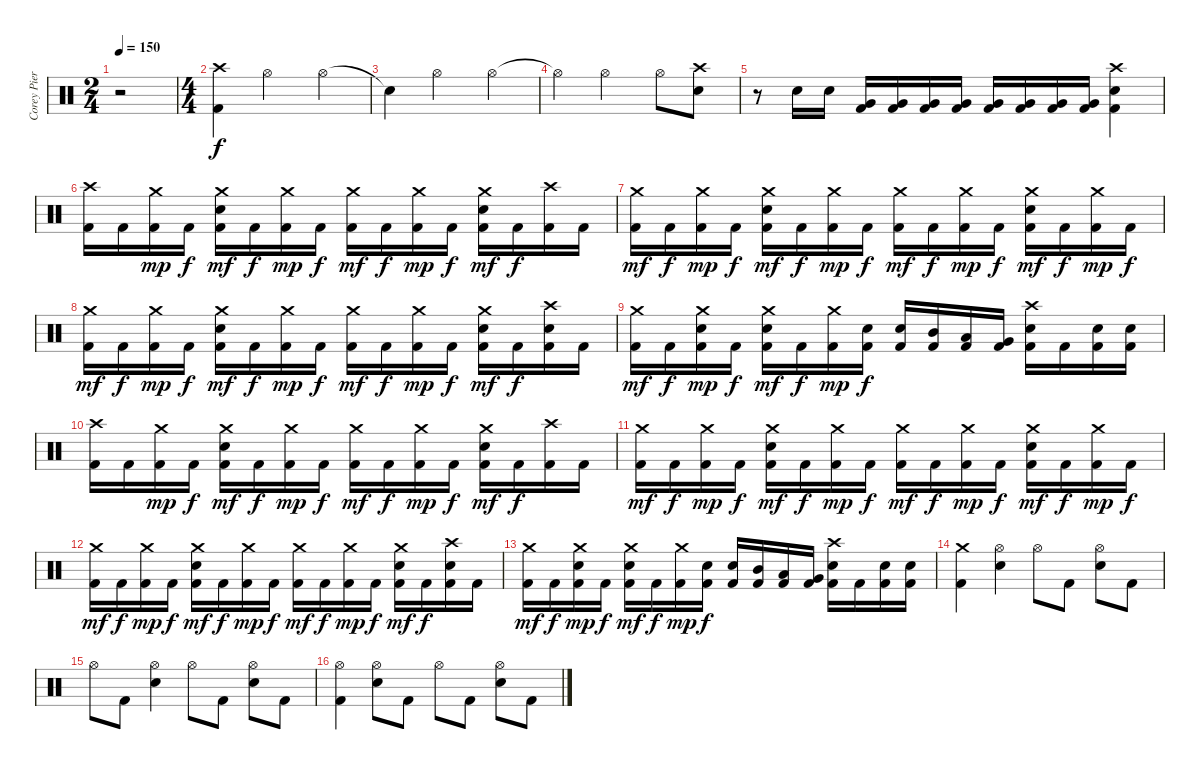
\track ("Corey Pierce" "Corey Pier") {instrument percussion}
\staff {score}
\articulation defaults
\ts (2 4)
\tempo 150
\clef neutral
\ks c
r.2{dy f} |
\ts (4 4)
("Crash high (hit)" "Kick (hit) 2").4 "Hi-Hat (open)".2 "Hi-Hat (open)".4 |
"Snare (hit)"{t}.4 "Hi-Hat (open)".2 "Hi-Hat (open)".4 |
"Hi-Hat (open)"{t}.4 "Hi-Hat (open)".2 "Hi-Hat (open)".8 ("Crash high (hit)" "Electric Snare (hit)").8 |
r.8 "Electric Snare (hit)".16 "Electric Snare (hit)".16 ("Very Low Tom (hit)" "Kick (hit) 2").16 ("Very Low Tom (hit)" "Kick (hit) 2").16 ("Very Low Tom (hit)" "Kick (hit) 2").16 ("Very Low Tom (hit)" "Kick (hit) 2").16 ("Very Low Tom (hit)" "Kick (hit) 2").16 ("Very Low Tom (hit)" "Kick (hit) 2").16 ("Very Low Tom (hit)" "Kick (hit) 2").16 ("Very Low Tom (hit)" "Kick (hit) 2").16 ("Crash high (hit)" "Electric Snare (hit)" "Kick (hit) 2").4 |
("Crash high (hit)" "Kick (hit) 2").16 "Kick (hit) 2".16 ("Crash medium (hit)" "Kick (hit) 2").16{dy mp} "Kick (hit) 2".16{dy f} ("Crash medium (hit)" "Electric Snare (hit)" "Kick (hit) 2").16{dy mf} "Kick (hit) 2".16{dy f} ("Crash medium (hit)" "Kick (hit) 2").16{dy mp} "Kick (hit) 2".16{dy f} ("Crash medium (hit)" "Kick (hit) 2").16{dy mf} "Kick (hit) 2".16{dy f} ("Crash medium (hit)" "Kick (hit) 2").16{dy mp} "Kick (hit) 2".16{dy f} ("Crash medium (hit)" "Electric Snare (hit)" "Kick (hit) 2").16{dy mf} "Kick (hit) 2".16{dy f} ("Crash high (hit)" "Kick (hit) 2").16 "Kick (hit) 2".16 |
("Crash medium (hit)" "Kick (hit) 2").16{dy mf} "Kick (hit) 2".16{dy f} ("Crash medium (hit)" "Kick (hit) 2").16{dy mp} "Kick (hit) 2".16{dy f} ("Crash medium (hit)" "Electric Snare (hit)" "Kick (hit) 2").16{dy mf} "Kick (hit) 2".16{dy f} ("Crash medium (hit)" "Kick (hit) 2").16{dy mp} "Kick (hit) 2".16{dy f} ("Crash medium (hit)" "Kick (hit) 2").16{dy mf} "Kick (hit) 2".16{dy f} ("Crash medium (hit)" "Kick (hit) 2").16{dy mp} "Kick (hit) 2".16{dy f} ("Crash medium (hit)" "Electric Snare (hit)" "Kick (hit) 2").16{dy mf} "Kick (hit) 2".16{dy f} ("Crash medium (hit)" "Kick (hit) 2").16{dy mp} "Kick (hit) 2".16{dy f} |
("Crash medium (hit)" "Kick (hit) 2").16{dy mf} "Kick (hit) 2".16{dy f} ("Crash medium (hit)" "Kick (hit) 2").16{dy mp} "Kick (hit) 2".16{dy f} ("Crash medium (hit)" "Electric Snare (hit)" "Kick (hit) 2").16{dy mf} "Kick (hit) 2".16{dy f} ("Crash medium (hit)" "Kick (hit) 2").16{dy mp} "Kick (hit) 2".16{dy f} ("Crash medium (hit)" "Kick (hit) 2").16{dy mf} "Kick (hit) 2".16{dy f} ("Crash medium (hit)" "Kick (hit) 2").16{dy mp} "Kick (hit) 2".16{dy f} ("Crash medium (hit)" "Electric Snare (hit)" "Kick (hit) 2").16{dy mf} "Kick (hit) 2".16{dy f} ("Crash high (hit)" "Electric Snare (hit)" "Kick (hit) 2").16 "Kick (hit) 2".16 |
("Crash medium (hit)" "Kick (hit) 2").16{dy mf} "Kick (hit) 2".16{dy f} ("Crash medium (hit)" "Electric Snare (hit)" "Kick (hit) 2").16{dy mp} "Kick (hit) 2".16{dy f} ("Crash medium (hit)" "Electric Snare (hit)" "Kick (hit) 2").16{dy mf} "Kick (hit) 2".16{dy f} ("Crash medium (hit)" "Kick (hit) 2").16{dy mp} ("Electric Snare (hit)" "Kick (hit) 2").16{dy f} ("Electric Snare (hit)" "Kick (hit) 2").16 ("Mid Tom (hit)" "Kick (hit) 2").16 ("Low Tom (hit)" "Kick (hit) 2").16 ("Very Low Tom (hit)" "Kick (hit) 2").16 ("Crash high (hit)" "Electric Snare (hit)" "Kick (hit) 2").16 "Kick (hit) 2".16 ("Electric Snare (hit)" "Kick (hit) 2").16 ("Electric Snare (hit)" "Kick (hit) 2").16 |
("Crash high (hit)" "Kick (hit) 2").16 "Kick (hit) 2".16 ("Crash medium (hit)" "Kick (hit) 2").16{dy mp} "Kick (hit) 2".16{dy f} ("Crash medium (hit)" "Electric Snare (hit)" "Kick (hit) 2").16{dy mf} "Kick (hit) 2".16{dy f} ("Crash medium (hit)" "Kick (hit) 2").16{dy mp} "Kick (hit) 2".16{dy f} ("Crash medium (hit)" "Kick (hit) 2").16{dy mf} "Kick (hit) 2".16{dy f} ("Crash medium (hit)" "Kick (hit) 2").16{dy mp} "Kick (hit) 2".16{dy f} ("Crash medium (hit)" "Electric Snare (hit)" "Kick (hit) 2").16{dy mf} "Kick (hit) 2".16{dy f} ("Crash high (hit)" "Kick (hit) 2").16 "Kick (hit) 2".16 |
("Crash medium (hit)" "Kick (hit) 2").16{dy mf} "Kick (hit) 2".16{dy f} ("Crash medium (hit)" "Kick (hit) 2").16{dy mp} "Kick (hit) 2".16{dy f} ("Crash medium (hit)" "Electric Snare (hit)" "Kick (hit) 2").16{dy mf} "Kick (hit) 2".16{dy f} ("Crash medium (hit)" "Kick (hit) 2").16{dy mp} "Kick (hit) 2".16{dy f} ("Crash medium (hit)" "Kick (hit) 2").16{dy mf} "Kick (hit) 2".16{dy f} ("Crash medium (hit)" "Kick (hit) 2").16{dy mp} "Kick (hit) 2".16{dy f} ("Crash medium (hit)" "Electric Snare (hit)" "Kick (hit) 2").16{dy mf} "Kick (hit) 2".16{dy f} ("Crash medium (hit)" "Kick (hit) 2").16{dy mp} "Kick (hit) 2".16{dy f} |
("Crash medium (hit)" "Kick (hit) 2").16{dy mf} "Kick (hit) 2".16{dy f} ("Crash medium (hit)" "Kick (hit) 2").16{dy mp} "Kick (hit) 2".16{dy f} ("Crash medium (hit)" "Electric Snare (hit)" "Kick (hit) 2").16{dy mf} "Kick (hit) 2".16{dy f} ("Crash medium (hit)" "Kick (hit) 2").16{dy mp} "Kick (hit) 2".16{dy f} ("Crash medium (hit)" "Kick (hit) 2").16{dy mf} "Kick (hit) 2".16{dy f} ("Crash medium (hit)" "Kick (hit) 2").16{dy mp} "Kick (hit) 2".16{dy f} ("Crash medium (hit)" "Electric Snare (hit)" "Kick (hit) 2").16{dy mf} "Kick (hit) 2".16{dy f} ("Crash high (hit)" "Electric Snare (hit)" "Kick (hit) 2").16 "Kick (hit) 2".16 |
("Crash medium (hit)" "Kick (hit) 2").16{dy mf} "Kick (hit) 2".16{dy f} ("Crash medium (hit)" "Electric Snare (hit)" "Kick (hit) 2").16{dy mp} "Kick (hit) 2".16{dy f} ("Crash medium (hit)" "Electric Snare (hit)" "Kick (hit) 2").16{dy mf} "Kick (hit) 2".16{dy f} ("Crash medium (hit)" "Kick (hit) 2").16{dy mp} ("Electric Snare (hit)" "Kick (hit) 2").16{dy f} ("Electric Snare (hit)" "Kick (hit) 2").16 ("Mid Tom (hit)" "Kick (hit) 2").16 ("Low Tom (hit)" "Kick (hit) 2").16 ("Very Low Tom (hit)" "Kick (hit) 2").16 ("Crash high (hit)" "Electric Snare (hit)" "Kick (hit) 2").16 "Kick (hit) 2".16 ("Electric Snare (hit)" "Kick (hit) 2").16 ("Electric Snare (hit)" "Kick (hit) 2").16 |
("Crash medium (hit)" "Kick (hit) 2").4 ("Hi-Hat (open)" "Electric Snare (hit)").4 "Hi-Hat (open)".8 "Kick (hit) 2".8 ("Hi-Hat (open)" "Electric Snare (hit)").8 "Kick (hit) 2".8 |
"Hi-Hat (open)".8 "Kick (hit) 2".8 ("Hi-Hat (open)" "Electric Snare (hit)").4 "Hi-Hat (open)".8 "Kick (hit) 2".8 ("Hi-Hat (open)" "Electric Snare (hit)").8 "Kick (hit) 2".8 |
("Hi-Hat (open)" "Kick (hit) 2").4 ("Hi-Hat (open)" "Electric Snare (hit)").8 "Kick (hit) 2".8 "Hi-Hat (open)".8 "Kick (hit) 2".8 ("Hi-Hat (open)" "Electric Snare (hit)").8 "Kick (hit) 2".8
